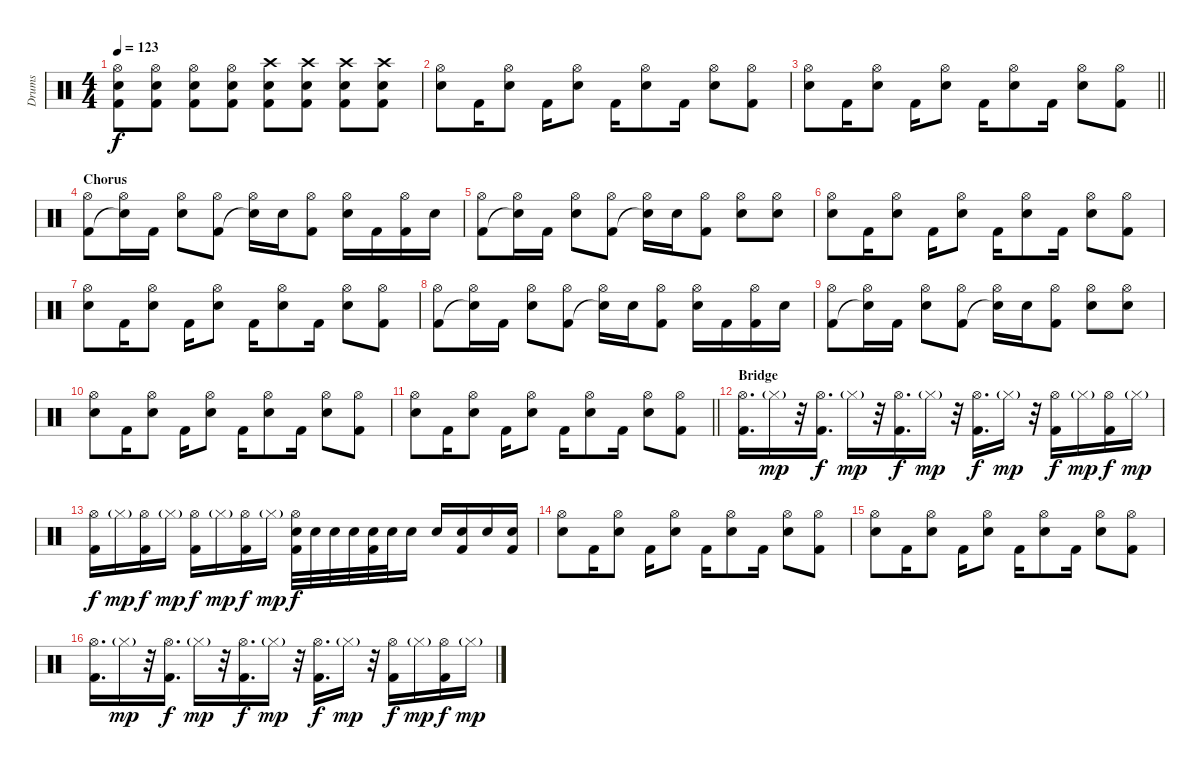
\track ("Drums" "Drums") {instrument percussion}
\staff {score}
\articulation defaults
\ts (4 4)
\tempo 123
\clef neutral
\ks c
("Hi-Hat (open)" "Electric Snare (hit)" "Kick (hit) 2").8{dy f} ("Hi-Hat (open)" "Electric Snare (hit)" "Kick (hit) 2").8 ("Hi-Hat (open)" "Electric Snare (hit)" "Kick (hit) 2").8 ("Hi-Hat (open)" "Electric Snare (hit)" "Kick (hit) 2").8 ("Crash high (hit)" "Electric Snare (hit)" "Kick (hit) 2").8 ("Crash high (hit)" "Electric Snare (hit)" "Kick (hit) 2").8 ("Crash high (hit)" "Electric Snare (hit)" "Kick (hit) 2").8 ("Crash high (hit)" "Electric Snare (hit)" "Kick (hit) 2").8 |
("Hi-Hat (open)" "Electric Snare (hit)").8 "Kick (hit) 2".16 ("Hi-Hat (open)" "Electric Snare (hit)").8 "Kick (hit) 2".16 ("Hi-Hat (open)" "Electric Snare (hit)").8 "Kick (hit) 2".16 ("Hi-Hat (open)" "Electric Snare (hit)").8 "Kick (hit) 2".16 ("Hi-Hat (open)" "Electric Snare (hit)").8 ("Hi-Hat (open)" "Kick (hit) 2").8 |
\barLineRight lightlight
("Hi-Hat (open)" "Electric Snare (hit)").8 "Kick (hit) 2".16 ("Hi-Hat (open)" "Electric Snare (hit)").8 "Kick (hit) 2".16 ("Hi-Hat (open)" "Electric Snare (hit)").8 "Kick (hit) 2".16 ("Hi-Hat (open)" "Electric Snare (hit)").8 "Kick (hit) 2".16 ("Hi-Hat (open)" "Electric Snare (hit)").8 ("Hi-Hat (open)" "Kick (hit) 2").8 |
\section ("" "Chorus")
("Hi-Hat (open)" "Kick (hit) 2").8 ("Hi-Hat (open)" "Snare (hit)"{t}).16 "Kick (hit) 2".16 ("Hi-Hat (open)" "Electric Snare (hit)").8 ("Hi-Hat (open)" "Kick (hit) 2").8 ("Hi-Hat (open)" "Snare (hit)"{t}).16 "Electric Snare (hit)".16 ("Hi-Hat (open)" "Kick (hit) 2").8 ("Hi-Hat (open)" "Electric Snare (hit)").16 "Kick (hit) 2".16 ("Hi-Hat (open)" "Kick (hit) 2").16 "Electric Snare (hit)".16 |
("Hi-Hat (open)" "Kick (hit) 2").8 ("Hi-Hat (open)" "Snare (hit)"{t}).16 "Kick (hit) 2".16 ("Hi-Hat (open)" "Electric Snare (hit)").8 ("Hi-Hat (open)" "Kick (hit) 2").8 ("Hi-Hat (open)" "Snare (hit)"{t}).16 "Electric Snare (hit)".16 ("Hi-Hat (open)" "Kick (hit) 2").8 ("Hi-Hat (open)" "Electric Snare (hit)").8 ("Hi-Hat (open)" "Electric Snare (hit)").8 |
("Hi-Hat (open)" "Electric Snare (hit)").8 "Kick (hit) 2".16 ("Hi-Hat (open)" "Electric Snare (hit)").8 "Kick (hit) 2".16 ("Hi-Hat (open)" "Electric Snare (hit)").8 "Kick (hit) 2".16 ("Hi-Hat (open)" "Electric Snare (hit)").8 "Kick (hit) 2".16 ("Hi-Hat (open)" "Electric Snare (hit)").8 ("Hi-Hat (open)" "Kick (hit) 2").8 |
("Hi-Hat (open)" "Electric Snare (hit)").8 "Kick (hit) 2".16 ("Hi-Hat (open)" "Electric Snare (hit)").8 "Kick (hit) 2".16 ("Hi-Hat (open)" "Electric Snare (hit)").8 "Kick (hit) 2".16 ("Hi-Hat (open)" "Electric Snare (hit)").8 "Kick (hit) 2".16 ("Hi-Hat (open)" "Electric Snare (hit)").8 ("Hi-Hat (open)" "Kick (hit) 2").8 |
("Hi-Hat (open)" "Kick (hit) 2").8 ("Hi-Hat (open)" "Snare (hit)"{t}).16 "Kick (hit) 2".16 ("Hi-Hat (open)" "Electric Snare (hit)").8 ("Hi-Hat (open)" "Kick (hit) 2").8 ("Hi-Hat (open)" "Snare (hit)"{t}).16 "Electric Snare (hit)".16 ("Hi-Hat (open)" "Kick (hit) 2").8 ("Hi-Hat (open)" "Electric Snare (hit)").16 "Kick (hit) 2".16 ("Hi-Hat (open)" "Kick (hit) 2").16 "Electric Snare (hit)".16 |
("Hi-Hat (open)" "Kick (hit) 2").8 ("Hi-Hat (open)" "Snare (hit)"{t}).16 "Kick (hit) 2".16 ("Hi-Hat (open)" "Electric Snare (hit)").8 ("Hi-Hat (open)" "Kick (hit) 2").8 ("Hi-Hat (open)" "Snare (hit)"{t}).16 "Electric Snare (hit)".16 ("Hi-Hat (open)" "Kick (hit) 2").8 ("Hi-Hat (open)" "Electric Snare (hit)").8 ("Hi-Hat (open)" "Electric Snare (hit)").8 |
("Hi-Hat (open)" "Electric Snare (hit)").8 "Kick (hit) 2".16 ("Hi-Hat (open)" "Electric Snare (hit)").8 "Kick (hit) 2".16 ("Hi-Hat (open)" "Electric Snare (hit)").8 "Kick (hit) 2".16 ("Hi-Hat (open)" "Electric Snare (hit)").8 "Kick (hit) 2".16 ("Hi-Hat (open)" "Electric Snare (hit)").8 ("Hi-Hat (open)" "Kick (hit) 2").8 |
\barLineRight lightlight
("Hi-Hat (open)" "Electric Snare (hit)").8 "Kick (hit) 2".16 ("Hi-Hat (open)" "Electric Snare (hit)").8 "Kick (hit) 2".16 ("Hi-Hat (open)" "Electric Snare (hit)").8 "Kick (hit) 2".16 ("Hi-Hat (open)" "Electric Snare (hit)").8 "Kick (hit) 2".16 ("Hi-Hat (open)" "Electric Snare (hit)").8 ("Hi-Hat (open)" "Kick (hit) 2").8 |
\section ("" "Bridge")
("Hi-Hat (open)" "Kick (hit) 2").16{d} "Hi-Hat (closed)"{g}.16{dy mp} r.32 ("Hi-Hat (open)" "Kick (hit) 2").16{d dy f} "Hi-Hat (closed)"{g}.16{dy mp} r.32 ("Hi-Hat (open)" "Kick (hit) 2").16{d dy f} "Hi-Hat (closed)"{g}.16{dy mp} r.32 ("Hi-Hat (open)" "Kick (hit) 2").16{d dy f} "Hi-Hat (closed)"{g}.16{dy mp} r.32 ("Hi-Hat (open)" "Kick (hit) 2").16{dy f} "Hi-Hat (closed)"{g}.16{dy mp} ("Hi-Hat (open)" "Kick (hit) 2").16{dy f} "Hi-Hat (closed)"{g}.16{dy mp} |
("Hi-Hat (open)" "Kick (hit) 2").16{dy f} "Hi-Hat (closed)"{g}.16{dy mp} ("Hi-Hat (open)" "Kick (hit) 2").16{dy f} "Hi-Hat (closed)"{g}.16{dy mp} ("Hi-Hat (open)" "Kick (hit) 2").16{dy f} "Hi-Hat (closed)"{g}.16{dy mp} ("Hi-Hat (open)" "Kick (hit) 2").16{dy f} "Hi-Hat (closed)"{g}.16{dy mp} ("Hi-Hat (open)" "Electric Snare (hit)" "Kick (hit) 2").32{dy f} "Electric Snare (hit)".32 "Electric Snare (hit)".32 "Electric Snare (hit)".32 ("Electric Snare (hit)" "Kick (hit) 2").32 "Electric Snare (hit)".32 "Electric Snare (hit)".16 "Electric Snare (hit)".16 ("Electric Snare (hit)" "Kick (hit) 2").16 "Electric Snare (hit)".16 ("Electric Snare (hit)" "Kick (hit) 2").16 |
("Hi-Hat (open)" "Electric Snare (hit)").8 "Kick (hit) 2".16 ("Hi-Hat (open)" "Electric Snare (hit)").8 "Kick (hit) 2".16 ("Hi-Hat (open)" "Electric Snare (hit)").8 "Kick (hit) 2".16 ("Hi-Hat (open)" "Electric Snare (hit)").8 "Kick (hit) 2".16 ("Hi-Hat (open)" "Electric Snare (hit)").8 ("Hi-Hat (open)" "Kick (hit) 2").8 |
("Hi-Hat (open)" "Electric Snare (hit)").8 "Kick (hit) 2".16 ("Hi-Hat (open)" "Electric Snare (hit)").8 "Kick (hit) 2".16 ("Hi-Hat (open)" "Electric Snare (hit)").8 "Kick (hit) 2".16 ("Hi-Hat (open)" "Electric Snare (hit)").8 "Kick (hit) 2".16 ("Hi-Hat (open)" "Electric Snare (hit)").8 ("Hi-Hat (open)" "Kick (hit) 2").8 |
("Hi-Hat (open)" "Kick (hit) 2").16{d} "Hi-Hat (closed)"{g}.16{dy mp} r.32 ("Hi-Hat (open)" "Kick (hit) 2").16{d dy f} "Hi-Hat (closed)"{g}.16{dy mp} r.32 ("Hi-Hat (open)" "Kick (hit) 2").16{d dy f} "Hi-Hat (closed)"{g}.16{dy mp} r.32 ("Hi-Hat (open)" "Kick (hit) 2").16{d dy f} "Hi-Hat (closed)"{g}.16{dy mp} r.32 ("Hi-Hat (open)" "Kick (hit) 2").16{dy f} "Hi-Hat (closed)"{g}.16{dy mp} ("Hi-Hat (open)" "Kick (hit) 2").16{dy f} "Hi-Hat (closed)"{g}.16{dy mp}
